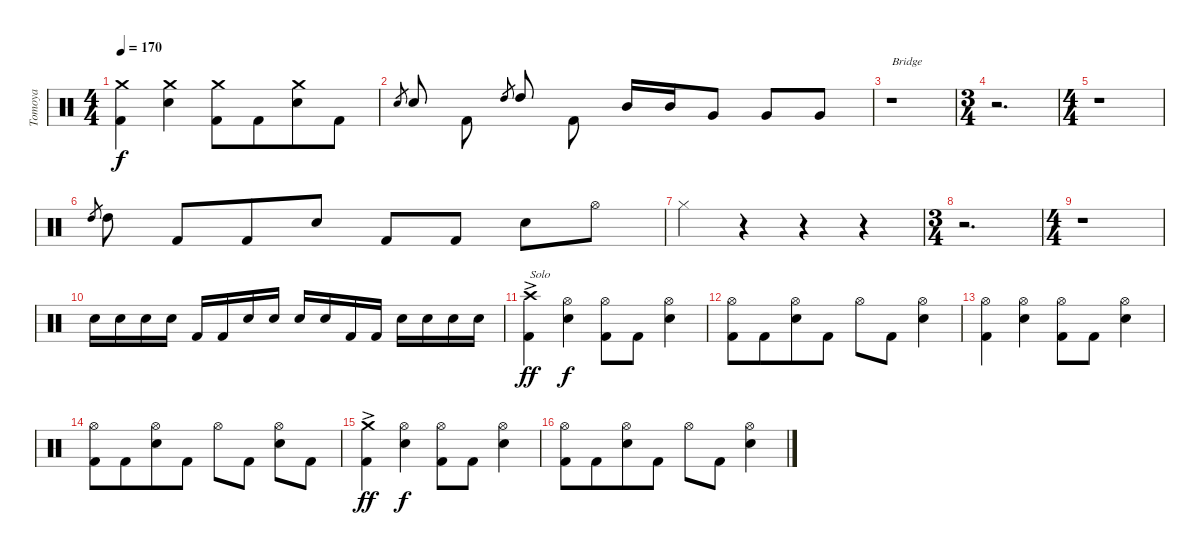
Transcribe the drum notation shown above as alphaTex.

\track ("Tomoya" "Tomoya") {instrument percussion}
\staff {score}
\articulation defaults
\ts (4 4)
\tempo 170
\clef neutral
\ks c
("Crash medium (hit)" "Kick (hit) 2").4{dy f} ("Crash medium (hit)" "Snare (hit) 2").4 ("Crash medium (hit)" "Kick (hit) 2").8 "Kick (hit) 2".8{beam merge} ("Crash medium (hit)" "Snare (hit) 2").8 "Kick (hit) 2".8 |
"Snare (hit) 2".8{gr} "Snare (hit) 2".8{beam Up beam split} "Kick (hit) 2".8{beam Down} "High Tom (hit)".8{gr beam split} "High Tom (hit)".8{beam Up beam split} "Kick (hit) 2".8{beam Down} "Mid Tom (hit)".16 "Mid Tom (hit)".16 "Very Low Tom (hit)".8 "Very Low Tom (hit)".8 "Very Low Tom (hit)".8 |
r.1{txt "Bridge"} |
\ts (3 4)
r.2{d} |
\ts (4 4)
r.1 |
"High Tom (hit)".8{gr} "High Tom (hit)".8{beam split} "Kick (hit) 2".8{beam merge} "Kick (hit) 2".8 "Snare (hit) 2".8 "Kick (hit) 2".8{beam Up} "Kick (hit) 2".8{beam Up} "Snare (hit) 2".8 "Hi-Hat (open)".8 |
"Hi-Hat (closed)".4 r.4 r.4 r.4 |
\ts (3 4)
r.2{d} |
\ts (4 4)
r.1 |
"Snare (hit) 2".16 "Snare (hit) 2".16 "Snare (hit) 2".16 "Snare (hit) 2".16 "Kick (hit) 2".16 "Kick (hit) 2".16 "Snare (hit) 2".16 "Snare (hit) 2".16 "Snare (hit) 2".16 "Snare (hit) 2".16 "Kick (hit) 2".16 "Kick (hit) 2".16 "Snare (hit) 2".16 "Snare (hit) 2".16 "Snare (hit) 2".16 "Snare (hit) 2".16 |
("Crash high (hit)"{ac} "Kick (hit) 2"{ac}).4{txt "Solo" dy ff} ("Hi-Hat (open)" "Snare (hit) 2").4{dy f} ("Hi-Hat (open)" "Kick (hit) 2").8 "Kick (hit) 2".8 ("Hi-Hat (open)" "Snare (hit) 2").4 |
("Hi-Hat (open)" "Kick (hit) 2").8 "Kick (hit) 2".8{beam merge} ("Hi-Hat (open)" "Snare (hit) 2").8 "Kick (hit) 2".8 "Hi-Hat (open)".8 "Kick (hit) 2".8 ("Hi-Hat (open)" "Snare (hit) 2").4 |
("Hi-Hat (open)" "Kick (hit) 2").4 ("Hi-Hat (open)" "Snare (hit) 2").4 ("Hi-Hat (open)" "Kick (hit) 2").8 "Kick (hit) 2".8 ("Hi-Hat (open)" "Snare (hit) 2").4 |
("Hi-Hat (open)" "Kick (hit) 2").8 "Kick (hit) 2".8{beam merge} ("Hi-Hat (open)" "Snare (hit) 2").8 "Kick (hit) 2".8 "Hi-Hat (open)".8 "Kick (hit) 2".8 ("Hi-Hat (open)" "Snare (hit) 2").8 "Kick (hit) 2".8 |
("Crash medium (hit)"{ac} "Kick (hit) 2"{ac}).4{dy ff} ("Hi-Hat (open)" "Snare (hit) 2").4{dy f} ("Hi-Hat (open)" "Kick (hit) 2").8 "Kick (hit) 2".8 ("Hi-Hat (open)" "Snare (hit) 2").4 |
("Hi-Hat (open)" "Kick (hit) 2").8 "Kick (hit) 2".8{beam merge} ("Hi-Hat (open)" "Snare (hit) 2").8 "Kick (hit) 2".8 "Hi-Hat (open)".8 "Kick (hit) 2".8 ("Hi-Hat (open)" "Snare (hit) 2").4
